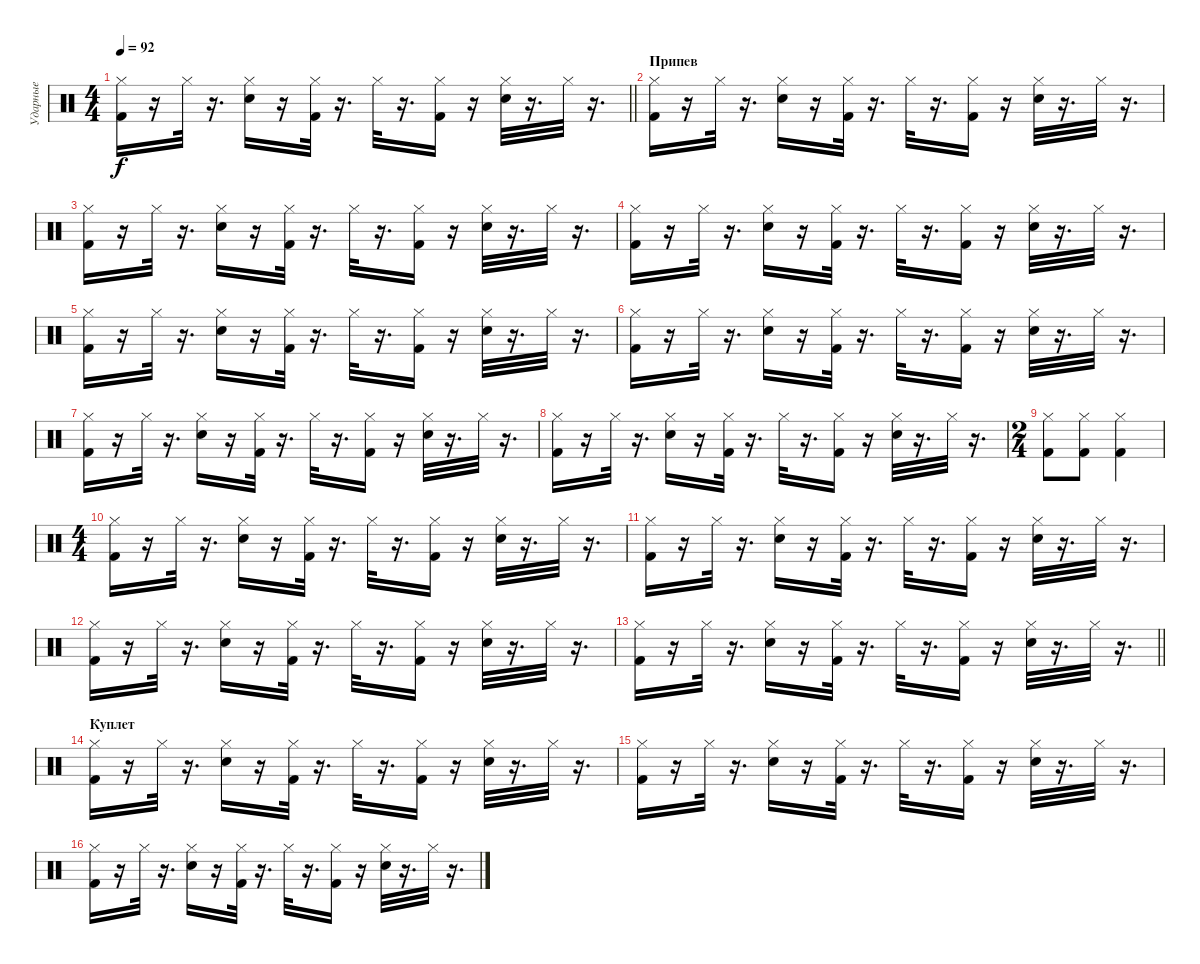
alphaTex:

\track ("Ударные" "Ударные") {instrument percussion}
\staff {score}
\articulation defaults
\ts (4 4)
\tempo 92
\clef neutral
\barLineRight lightlight
\ks c
("Kick (hit) 2" "Hi-Hat (closed)").16{dy f} r.16 "Hi-Hat (closed)".32 r.16{d} ("Electric Snare (hit)" "Hi-Hat (closed)").16 r.16 ("Kick (hit) 2" "Hi-Hat (closed)").32 r.16{d} "Hi-Hat (closed)".32 r.16{d} ("Kick (hit) 2" "Hi-Hat (closed)").16 r.16 ("Electric Snare (hit)" "Hi-Hat (closed)").32 r.16{d} "Hi-Hat (closed)".32 r.16{d} |
\section ("" "Припев")
("Kick (hit) 2" "Hi-Hat (closed)").16 r.16 "Hi-Hat (closed)".32 r.16{d} ("Electric Snare (hit)" "Hi-Hat (closed)").16 r.16 ("Kick (hit) 2" "Hi-Hat (closed)").32 r.16{d} "Hi-Hat (closed)".32 r.16{d} ("Kick (hit) 2" "Hi-Hat (closed)").16 r.16 ("Electric Snare (hit)" "Hi-Hat (closed)").32 r.16{d} "Hi-Hat (closed)".32 r.16{d} |
("Kick (hit) 2" "Hi-Hat (closed)").16 r.16 "Hi-Hat (closed)".32 r.16{d} ("Electric Snare (hit)" "Hi-Hat (closed)").16 r.16 ("Kick (hit) 2" "Hi-Hat (closed)").32 r.16{d} "Hi-Hat (closed)".32 r.16{d} ("Kick (hit) 2" "Hi-Hat (closed)").16 r.16 ("Electric Snare (hit)" "Hi-Hat (closed)").32 r.16{d} "Hi-Hat (closed)".32 r.16{d} |
("Kick (hit) 2" "Hi-Hat (closed)").16 r.16 "Hi-Hat (closed)".32 r.16{d} ("Electric Snare (hit)" "Hi-Hat (closed)").16 r.16 ("Kick (hit) 2" "Hi-Hat (closed)").32 r.16{d} "Hi-Hat (closed)".32 r.16{d} ("Kick (hit) 2" "Hi-Hat (closed)").16 r.16 ("Electric Snare (hit)" "Hi-Hat (closed)").32 r.16{d} "Hi-Hat (closed)".32 r.16{d} |
("Kick (hit) 2" "Hi-Hat (closed)").16 r.16 "Hi-Hat (closed)".32 r.16{d} ("Electric Snare (hit)" "Hi-Hat (closed)").16 r.16 ("Kick (hit) 2" "Hi-Hat (closed)").32 r.16{d} "Hi-Hat (closed)".32 r.16{d} ("Kick (hit) 2" "Hi-Hat (closed)").16 r.16 ("Electric Snare (hit)" "Hi-Hat (closed)").32 r.16{d} "Hi-Hat (closed)".32 r.16{d} |
("Kick (hit) 2" "Hi-Hat (closed)").16 r.16 "Hi-Hat (closed)".32 r.16{d} ("Electric Snare (hit)" "Hi-Hat (closed)").16 r.16 ("Kick (hit) 2" "Hi-Hat (closed)").32 r.16{d} "Hi-Hat (closed)".32 r.16{d} ("Kick (hit) 2" "Hi-Hat (closed)").16 r.16 ("Electric Snare (hit)" "Hi-Hat (closed)").32 r.16{d} "Hi-Hat (closed)".32 r.16{d} |
("Kick (hit) 2" "Hi-Hat (closed)").16 r.16 "Hi-Hat (closed)".32 r.16{d} ("Electric Snare (hit)" "Hi-Hat (closed)").16 r.16 ("Kick (hit) 2" "Hi-Hat (closed)").32 r.16{d} "Hi-Hat (closed)".32 r.16{d} ("Kick (hit) 2" "Hi-Hat (closed)").16 r.16 ("Electric Snare (hit)" "Hi-Hat (closed)").32 r.16{d} "Hi-Hat (closed)".32 r.16{d} |
("Kick (hit) 2" "Hi-Hat (closed)").16 r.16 "Hi-Hat (closed)".32 r.16{d} ("Electric Snare (hit)" "Hi-Hat (closed)").16 r.16 ("Kick (hit) 2" "Hi-Hat (closed)").32 r.16{d} "Hi-Hat (closed)".32 r.16{d} ("Kick (hit) 2" "Hi-Hat (closed)").16 r.16 ("Electric Snare (hit)" "Hi-Hat (closed)").32 r.16{d} "Hi-Hat (closed)".32 r.16{d} |
\ts (2 4)
("Kick (hit) 2" "Hi-Hat (closed)").8 ("Kick (hit) 2" "Hi-Hat (closed)").8 ("Kick (hit) 2" "Hi-Hat (closed)").4 |
\ts (4 4)
("Kick (hit) 2" "Hi-Hat (closed)").16 r.16 "Hi-Hat (closed)".32 r.16{d} ("Electric Snare (hit)" "Hi-Hat (closed)").16 r.16 ("Kick (hit) 2" "Hi-Hat (closed)").32 r.16{d} "Hi-Hat (closed)".32 r.16{d} ("Kick (hit) 2" "Hi-Hat (closed)").16 r.16 ("Electric Snare (hit)" "Hi-Hat (closed)").32 r.16{d} "Hi-Hat (closed)".32 r.16{d} |
("Kick (hit) 2" "Hi-Hat (closed)").16 r.16 "Hi-Hat (closed)".32 r.16{d} ("Electric Snare (hit)" "Hi-Hat (closed)").16 r.16 ("Kick (hit) 2" "Hi-Hat (closed)").32 r.16{d} "Hi-Hat (closed)".32 r.16{d} ("Kick (hit) 2" "Hi-Hat (closed)").16 r.16 ("Electric Snare (hit)" "Hi-Hat (closed)").32 r.16{d} "Hi-Hat (closed)".32 r.16{d} |
("Kick (hit) 2" "Hi-Hat (closed)").16 r.16 "Hi-Hat (closed)".32 r.16{d} ("Electric Snare (hit)" "Hi-Hat (closed)").16 r.16 ("Kick (hit) 2" "Hi-Hat (closed)").32 r.16{d} "Hi-Hat (closed)".32 r.16{d} ("Kick (hit) 2" "Hi-Hat (closed)").16 r.16 ("Electric Snare (hit)" "Hi-Hat (closed)").32 r.16{d} "Hi-Hat (closed)".32 r.16{d} |
\barLineRight lightlight
("Kick (hit) 2" "Hi-Hat (closed)").16 r.16 "Hi-Hat (closed)".32 r.16{d} ("Electric Snare (hit)" "Hi-Hat (closed)").16 r.16 ("Kick (hit) 2" "Hi-Hat (closed)").32 r.16{d} "Hi-Hat (closed)".32 r.16{d} ("Kick (hit) 2" "Hi-Hat (closed)").16 r.16 ("Electric Snare (hit)" "Hi-Hat (closed)").32 r.16{d} "Hi-Hat (closed)".32 r.16{d} |
\section ("" "Куплет")
("Kick (hit) 2" "Hi-Hat (closed)").16 r.16 "Hi-Hat (closed)".32 r.16{d} ("Electric Snare (hit)" "Hi-Hat (closed)").16 r.16 ("Kick (hit) 2" "Hi-Hat (closed)").32 r.16{d} "Hi-Hat (closed)".32 r.16{d} ("Kick (hit) 2" "Hi-Hat (closed)").16 r.16 ("Electric Snare (hit)" "Hi-Hat (closed)").32 r.16{d} "Hi-Hat (closed)".32 r.16{d} |
("Kick (hit) 2" "Hi-Hat (closed)").16 r.16 "Hi-Hat (closed)".32 r.16{d} ("Electric Snare (hit)" "Hi-Hat (closed)").16 r.16 ("Kick (hit) 2" "Hi-Hat (closed)").32 r.16{d} "Hi-Hat (closed)".32 r.16{d} ("Kick (hit) 2" "Hi-Hat (closed)").16 r.16 ("Electric Snare (hit)" "Hi-Hat (closed)").32 r.16{d} "Hi-Hat (closed)".32 r.16{d} |
("Kick (hit) 2" "Hi-Hat (closed)").16 r.16 "Hi-Hat (closed)".32 r.16{d} ("Electric Snare (hit)" "Hi-Hat (closed)").16 r.16 ("Kick (hit) 2" "Hi-Hat (closed)").32 r.16{d} "Hi-Hat (closed)".32 r.16{d} ("Kick (hit) 2" "Hi-Hat (closed)").16 r.16 ("Electric Snare (hit)" "Hi-Hat (closed)").32 r.16{d} "Hi-Hat (closed)".32 r.16{d}
